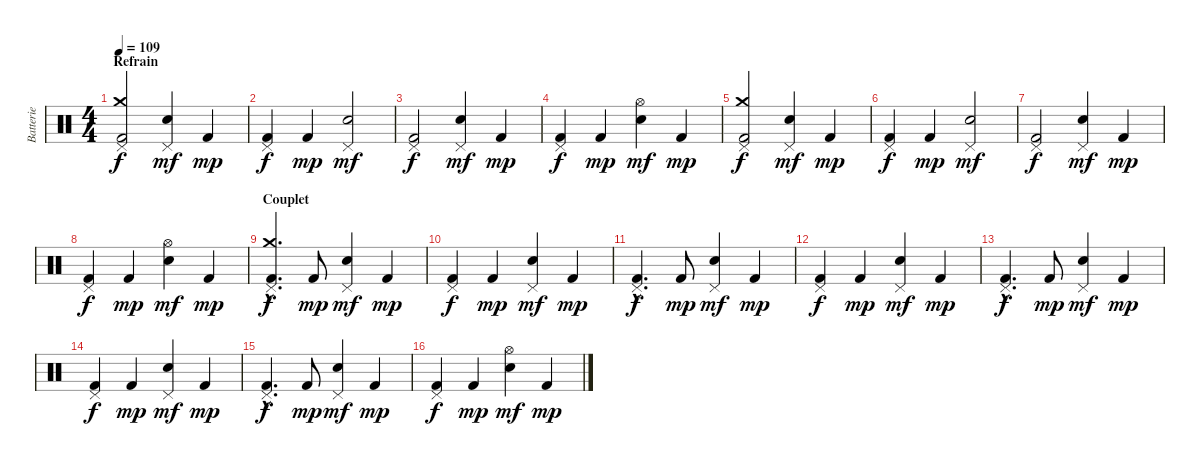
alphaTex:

\track ("Batterie" "Batterie") {instrument percussion}
\staff {score}
\articulation defaults
\ts (4 4)
\section ("" "Refrain")
\tempo 109
\clef neutral
\ks c
("Pedal Hi-Hat (hit)" "Crash medium (hit)" "Kick (hit) 2").2{dy f} ("Pedal Hi-Hat (hit)" "Electric Snare (hit)").4{dy mf} "Kick (hit) 2".4{dy mp} |
("Pedal Hi-Hat (hit)" "Kick (hit) 2").4{dy f} "Kick (hit) 2".4{dy mp} ("Pedal Hi-Hat (hit)" "Electric Snare (hit)").2{dy mf} |
("Pedal Hi-Hat (hit)" "Kick (hit) 2").2{dy f} ("Pedal Hi-Hat (hit)" "Electric Snare (hit)").4{dy mf} "Kick (hit) 2".4{dy mp} |
("Pedal Hi-Hat (hit)" "Kick (hit) 2").4{dy f} "Kick (hit) 2".4{dy mp} ("Hi-Hat (open)" "Electric Snare (hit)").4{dy mf} "Kick (hit) 2".4{dy mp} |
("Pedal Hi-Hat (hit)" "Crash medium (hit)" "Kick (hit) 2").2{dy f} ("Pedal Hi-Hat (hit)" "Electric Snare (hit)").4{dy mf} "Kick (hit) 2".4{dy mp} |
("Pedal Hi-Hat (hit)" "Kick (hit) 2").4{dy f} "Kick (hit) 2".4{dy mp} ("Pedal Hi-Hat (hit)" "Electric Snare (hit)").2{dy mf} |
("Pedal Hi-Hat (hit)" "Kick (hit) 2").2{dy f} ("Pedal Hi-Hat (hit)" "Electric Snare (hit)").4{dy mf} "Kick (hit) 2".4{dy mp} |
("Pedal Hi-Hat (hit)" "Kick (hit) 2").4{dy f} "Kick (hit) 2".4{dy mp} ("Hi-Hat (open)" "Electric Snare (hit)").4{dy mf} "Kick (hit) 2".4{dy mp} |
\section ("" "Couplet")
("Pedal Hi-Hat (hit)"{hac} "Crash medium (hit)"{hac} "Kick (hit) 2"{hac}).4{d dy f} "Kick (hit) 2".8{dy mp} ("Pedal Hi-Hat (hit)" "Electric Snare (hit)").4{dy mf} "Kick (hit) 2".4{dy mp} |
("Pedal Hi-Hat (hit)" "Kick (hit) 2").4{dy f} "Kick (hit) 2".4{dy mp} ("Pedal Hi-Hat (hit)" "Electric Snare (hit)").4{dy mf} "Kick (hit) 2".4{dy mp} |
("Pedal Hi-Hat (hit)"{hac} "Kick (hit) 2"{hac}).4{d dy f} "Kick (hit) 2".8{dy mp} ("Pedal Hi-Hat (hit)" "Electric Snare (hit)").4{dy mf} "Kick (hit) 2".4{dy mp} |
("Pedal Hi-Hat (hit)" "Kick (hit) 2").4{dy f} "Kick (hit) 2".4{dy mp} ("Pedal Hi-Hat (hit)" "Electric Snare (hit)").4{dy mf} "Kick (hit) 2".4{dy mp} |
("Pedal Hi-Hat (hit)"{hac} "Kick (hit) 2"{hac}).4{d dy f} "Kick (hit) 2".8{dy mp} ("Pedal Hi-Hat (hit)" "Electric Snare (hit)").4{dy mf} "Kick (hit) 2".4{dy mp} |
("Pedal Hi-Hat (hit)" "Kick (hit) 2").4{dy f} "Kick (hit) 2".4{dy mp} ("Pedal Hi-Hat (hit)" "Electric Snare (hit)").4{dy mf} "Kick (hit) 2".4{dy mp} |
("Pedal Hi-Hat (hit)"{hac} "Kick (hit) 2"{hac}).4{d dy f} "Kick (hit) 2".8{dy mp} ("Pedal Hi-Hat (hit)" "Electric Snare (hit)").4{dy mf} "Kick (hit) 2".4{dy mp} |
("Pedal Hi-Hat (hit)" "Kick (hit) 2").4{dy f} "Kick (hit) 2".4{dy mp} ("Hi-Hat (open)" "Electric Snare (hit)").4{dy mf} "Kick (hit) 2".4{dy mp}
